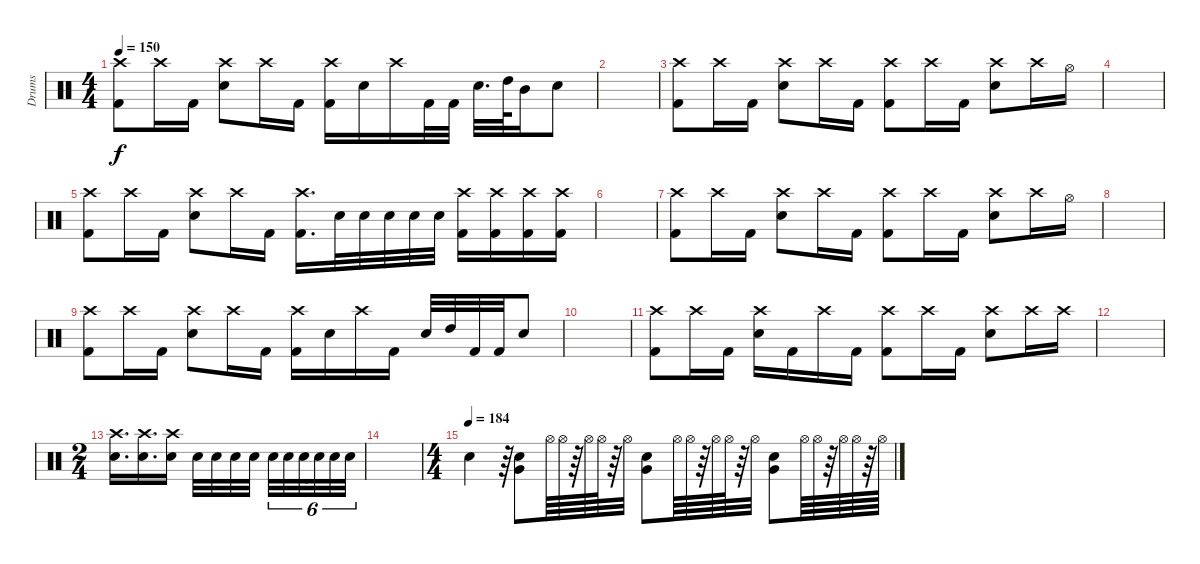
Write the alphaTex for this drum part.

\track ("Drums" "Drums") {instrument percussion}
\staff {score}
\articulation defaults
\ts (4 4)
\tempo 150
\clef neutral
\ks c
("Crash high (hit)" "Kick (hit) 2").8{dy f} "Crash high (hit)".16 "Kick (hit) 2".16 ("Crash high (hit)" "Snare (hit) 2").8 "Crash high (hit)".16 "Kick (hit) 2".16 ("Crash high (hit)" "Kick (hit) 2").16 "Snare (hit) 2".16 "Crash high (hit)".16 "Kick (hit) 2".32 "Kick (hit) 2".32 "Snare (hit) 2".32{d} "High Tom (hit)".64 "Mid Tom (hit)".16 "Snare (hit) 2".8 |
|
("Crash high (hit)" "Kick (hit) 2").8 "Crash high (hit)".16 "Kick (hit) 2".16 ("Crash high (hit)" "Snare (hit) 2").8 "Crash high (hit)".16 "Kick (hit) 2".16 ("Crash high (hit)" "Kick (hit) 2").8 "Crash high (hit)".16 "Kick (hit) 2".16 ("Crash high (hit)" "Snare (hit) 2").8 "Crash high (hit)".16 "Hi-Hat (open)".16 |
|
("Crash high (hit)" "Kick (hit) 2").8 "Crash high (hit)".16 "Kick (hit) 2".16 ("Crash high (hit)" "Snare (hit) 2").8 "Crash high (hit)".16 "Kick (hit) 2".16 ("Kick (hit) 2" "Crash high (hit)").16{d} "Snare (hit) 2".32 "Snare (hit) 2".32 "Snare (hit) 2".32 "Snare (hit) 2".32 "Snare (hit) 2".32 ("Kick (hit) 2" "Crash high (hit)").16 ("Kick (hit) 2" "Crash high (hit)").16 ("Kick (hit) 2" "Crash high (hit)").16 ("Kick (hit) 2" "Crash high (hit)").16 |
|
("Crash high (hit)" "Kick (hit) 2").8 "Crash high (hit)".16 "Kick (hit) 2".16 ("Crash high (hit)" "Snare (hit) 2").8 "Crash high (hit)".16 "Kick (hit) 2".16 ("Crash high (hit)" "Kick (hit) 2").8 "Crash high (hit)".16 "Kick (hit) 2".16 ("Crash high (hit)" "Snare (hit) 2").8 "Crash high (hit)".16 "Hi-Hat (open)".16 |
|
("Crash high (hit)" "Kick (hit) 2").8 "Crash high (hit)".16 "Kick (hit) 2".16 ("Crash high (hit)" "Snare (hit) 2").8 "Crash high (hit)".16 "Kick (hit) 2".16 ("Crash high (hit)" "Kick (hit) 2").16 "Snare (hit) 2".16 "Crash high (hit)".16 "Kick (hit) 2".16 "Snare (hit) 2".32 "High Tom (hit)".32 "Kick (hit) 2".32 "Kick (hit) 2".32 "Snare (hit) 2".8 |
|
("Crash high (hit)" "Kick (hit) 2").8 "Crash high (hit)".16 "Kick (hit) 2".16 ("Crash high (hit)" "Snare (hit) 2").16 "Kick (hit) 2".16 "Crash high (hit)".16 "Kick (hit) 2".16 ("Crash high (hit)" "Kick (hit) 2").8 "Crash high (hit)".16 "Kick (hit) 2".16 ("Crash high (hit)" "Snare (hit) 2").8 "Crash high (hit)".16 "Crash high (hit)".16 |
|
\ts (2 4)
("Snare (hit) 2" "Crash high (hit)").16{d} ("Snare (hit) 2" "Crash high (hit)").16{d} ("Snare (hit) 2" "Crash high (hit)").16 "Snare (hit) 2".32 "Snare (hit) 2".32 "Snare (hit) 2".32 "Snare (hit) 2".32{beam splitsecondary} "Snare (hit) 2".32{tu (6 4)} "Snare (hit) 2".32{tu (6 4)} "Snare (hit) 2".32{tu (6 4) beam splitsecondary} "Snare (hit) 2".32{tu (6 4)} "Snare (hit) 2".32{tu (6 4)} "Snare (hit) 2".32{tu (6 4)} |
|
\ts (4 4)
\tempo (184)
"Snare (hit) 2".4 r.64 ("Very Low Tom (hit)" "Snare (hit) 2").8 "Hi-Hat (open)".64 "Hi-Hat (open)".64 r.64 "Hi-Hat (open)".64 "Hi-Hat (open)".64 r.64 "Hi-Hat (open)".32 ("Very Low Tom (hit)" "Snare (hit) 2").8 "Hi-Hat (open)".64 "Hi-Hat (open)".64 r.64 "Hi-Hat (open)".64 "Hi-Hat (open)".64 r.64 "Hi-Hat (open)".32 ("Very Low Tom (hit)" "Snare (hit) 2").8 "Hi-Hat (open)".64 "Hi-Hat (open)".64 r.64 "Hi-Hat (open)".64 "Hi-Hat (open)".64 r.64 "Hi-Hat (open)".64
